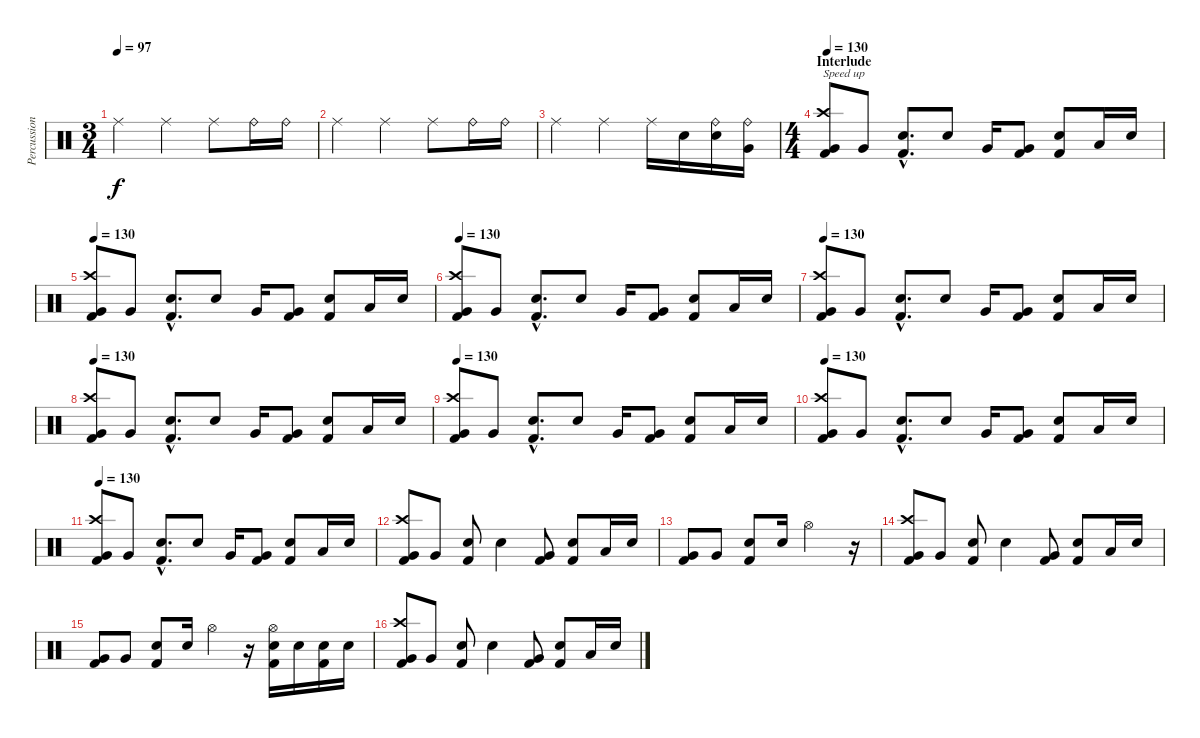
\track ("Percussion" "Percussion") {instrument percussion}
\staff {score}
\articulation defaults
\ts (3 4)
\tempo 97
\clef neutral
\ks c "Ride (middle)".4{dy f} "Ride (middle)".4 "Ride (middle)".8 "Ride (bell)".16 "Ride (bell)".16
|
"Ride (middle)".4 "Ride (middle)".4 "Ride (middle)".8 "Ride (bell)".16 "Ride (bell)".16 |
"Ride (middle)".4 "Ride (middle)".4 "Ride (middle)".16 "Electric Snare (hit)".16 ("Ride (bell)" "Electric Snare (hit)").16 ("Ride (bell)" "Very Low Tom (hit)").16 |
\ts (4 4)
\section ("" "Interlude")
\tempo 130
("Crash high (hit)" "Very Low Tom (hit)" "Kick (hit) 2").8{txt "Speed up"} "Very Low Tom (hit)".8 ("Electric Snare (hit)"{hac} "Kick (hit) 2"{hac}).8{d} "Electric Snare (hit)".8 "Very Low Tom (hit)".16 ("Very Low Tom (hit)" "Kick (hit) 2").8 ("Electric Snare (hit)" "Kick (hit) 2").8 "Low Floor Tom (hit)".16 "Electric Snare (hit)".16 |
\tempo 130
("Crash high (hit)" "Very Low Tom (hit)" "Kick (hit) 2").8 "Very Low Tom (hit)".8 ("Electric Snare (hit)"{hac} "Kick (hit) 2"{hac}).8{d} "Electric Snare (hit)".8 "Very Low Tom (hit)".16 ("Very Low Tom (hit)" "Kick (hit) 2").8 ("Electric Snare (hit)" "Kick (hit) 2").8 "Low Floor Tom (hit)".16 "Electric Snare (hit)".16 |
\tempo 130
("Crash high (hit)" "Very Low Tom (hit)" "Kick (hit) 2").8 "Very Low Tom (hit)".8 ("Electric Snare (hit)"{hac} "Kick (hit) 2"{hac}).8{d} "Electric Snare (hit)".8 "Very Low Tom (hit)".16 ("Very Low Tom (hit)" "Kick (hit) 2").8 ("Electric Snare (hit)" "Kick (hit) 2").8 "Low Floor Tom (hit)".16 "Electric Snare (hit)".16 |
\tempo 130
("Crash high (hit)" "Very Low Tom (hit)" "Kick (hit) 2").8 "Very Low Tom (hit)".8 ("Electric Snare (hit)"{hac} "Kick (hit) 2"{hac}).8{d} "Electric Snare (hit)".8 "Very Low Tom (hit)".16 ("Very Low Tom (hit)" "Kick (hit) 2").8 ("Electric Snare (hit)" "Kick (hit) 2").8 "Low Floor Tom (hit)".16 "Electric Snare (hit)".16 |
\tempo 130
("Crash high (hit)" "Very Low Tom (hit)" "Kick (hit) 2").8 "Very Low Tom (hit)".8 ("Electric Snare (hit)"{hac} "Kick (hit) 2"{hac}).8{d} "Electric Snare (hit)".8 "Very Low Tom (hit)".16 ("Very Low Tom (hit)" "Kick (hit) 2").8 ("Electric Snare (hit)" "Kick (hit) 2").8 "Low Floor Tom (hit)".16 "Electric Snare (hit)".16 |
\tempo 130
("Crash high (hit)" "Very Low Tom (hit)" "Kick (hit) 2").8 "Very Low Tom (hit)".8 ("Electric Snare (hit)"{hac} "Kick (hit) 2"{hac}).8{d} "Electric Snare (hit)".8 "Very Low Tom (hit)".16 ("Very Low Tom (hit)" "Kick (hit) 2").8 ("Electric Snare (hit)" "Kick (hit) 2").8 "Low Floor Tom (hit)".16 "Electric Snare (hit)".16 |
\tempo 130
("Crash high (hit)" "Very Low Tom (hit)" "Kick (hit) 2").8 "Very Low Tom (hit)".8 ("Electric Snare (hit)"{hac} "Kick (hit) 2"{hac}).8{d} "Electric Snare (hit)".8 "Very Low Tom (hit)".16 ("Very Low Tom (hit)" "Kick (hit) 2").8 ("Electric Snare (hit)" "Kick (hit) 2").8 "Low Floor Tom (hit)".16 "Electric Snare (hit)".16 |
\tempo 130
("Crash high (hit)" "Very Low Tom (hit)" "Kick (hit) 2").8 "Very Low Tom (hit)".8 ("Electric Snare (hit)"{hac} "Kick (hit) 2"{hac}).8{d} "Electric Snare (hit)".8 "Very Low Tom (hit)".16 ("Very Low Tom (hit)" "Kick (hit) 2").8 ("Electric Snare (hit)" "Kick (hit) 2").8 "Low Floor Tom (hit)".16 "Electric Snare (hit)".16 |
("Crash high (hit)" "Very Low Tom (hit)" "Kick (hit) 2").8{volume 16} "Very Low Tom (hit)".8 ("Electric Snare (hit)" "Kick (hit) 2").8 "Electric Snare (hit)".4 ("Very Low Tom (hit)" "Kick (hit) 2").8 ("Electric Snare (hit)" "Kick (hit) 2").8 "Low Floor Tom (hit)".16 "Electric Snare (hit)".16 |
("Very Low Tom (hit)" "Kick (hit) 2").8 "Very Low Tom (hit)".8 ("Electric Snare (hit)" "Kick (hit) 2").8 "Electric Snare (hit)".16 "Hi-Hat (open)".2 r.16 |
("Crash high (hit)" "Very Low Tom (hit)" "Kick (hit) 2").8{volume 16} "Very Low Tom (hit)".8 ("Electric Snare (hit)" "Kick (hit) 2").8 "Electric Snare (hit)".4 ("Very Low Tom (hit)" "Kick (hit) 2").8 ("Electric Snare (hit)" "Kick (hit) 2").8 "Low Floor Tom (hit)".16 "Electric Snare (hit)".16 |
("Very Low Tom (hit)" "Kick (hit) 2").8 "Very Low Tom (hit)".8 ("Electric Snare (hit)" "Kick (hit) 2").8 "Electric Snare (hit)".16 "Hi-Hat (open)".4 r.16 ("Hi-Hat (open)" "Electric Snare (hit)" "Kick (hit) 2").16 "Electric Snare (hit)".16 ("Electric Snare (hit)" "Kick (hit) 2").16 "Electric Snare (hit)".16 |
("Crash high (hit)" "Very Low Tom (hit)" "Kick (hit) 2").8{volume 16} "Very Low Tom (hit)".8 ("Electric Snare (hit)" "Kick (hit) 2").8 "Electric Snare (hit)".4 ("Very Low Tom (hit)" "Kick (hit) 2").8 ("Electric Snare (hit)" "Kick (hit) 2").8 "Low Floor Tom (hit)".16 "Electric Snare (hit)".16
